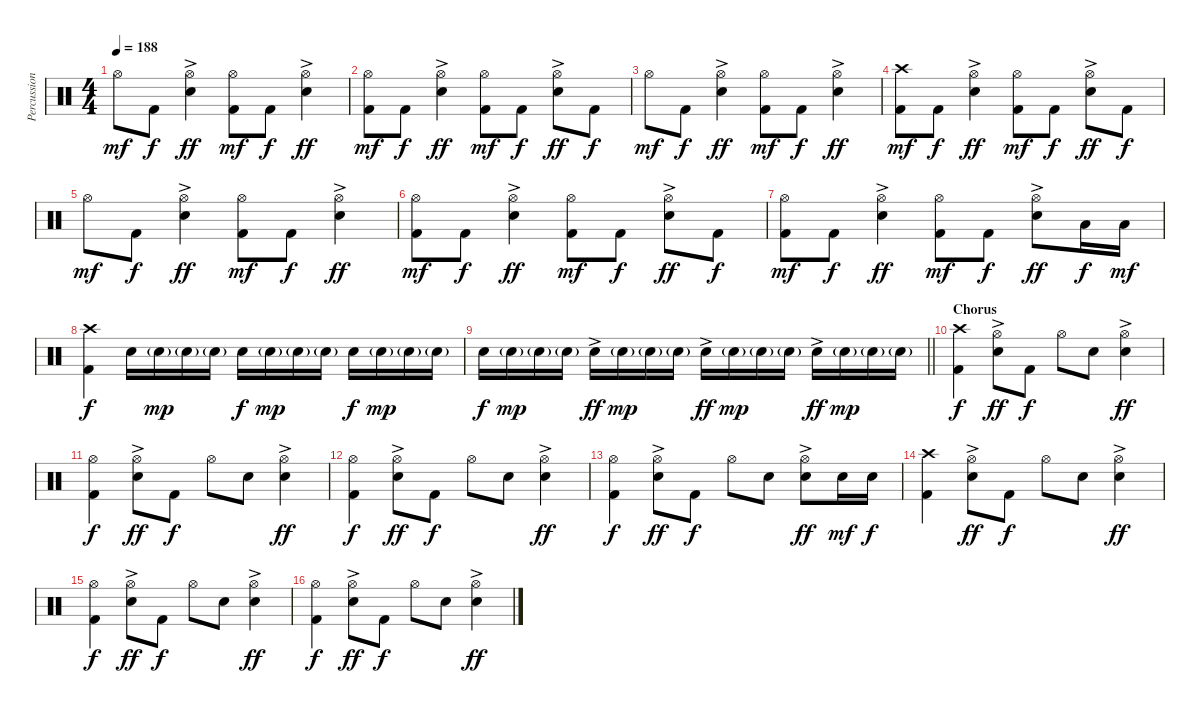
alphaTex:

\track ("Percussion" "Percussion") {instrument percussion}
\staff {score}
\articulation defaults
\ts (4 4)
\tempo 188
\clef neutral
\ks c "Hi-Hat (open)".8{dy mf} "Kick (hit) 2".8{dy f}
("Hi-Hat (open)" "Electric Snare (hit)"{ac}).4{dy ff} ("Hi-Hat (open)" "Kick (hit) 2").8{dy mf} "Kick (hit) 2".8{dy f} ("Hi-Hat (open)" "Electric Snare (hit)"{ac}).4{dy ff} |
("Hi-Hat (open)" "Kick (hit) 2").8{dy mf} "Kick (hit) 2".8{dy f} ("Hi-Hat (open)" "Electric Snare (hit)"{ac}).4{dy ff} ("Hi-Hat (open)" "Kick (hit) 2").8{dy mf} "Kick (hit) 2".8{dy f} ("Hi-Hat (open)" "Electric Snare (hit)"{ac}).8{dy ff} "Kick (hit) 2".8{dy f} |
"Hi-Hat (open)".8{dy mf} "Kick (hit) 2".8{dy f} ("Hi-Hat (open)" "Electric Snare (hit)"{ac}).4{dy ff} ("Hi-Hat (open)" "Kick (hit) 2").8{dy mf} "Kick (hit) 2".8{dy f} ("Hi-Hat (open)" "Electric Snare (hit)"{ac}).4{dy ff} |
("Crash high (hit)" "Kick (hit) 2").8{dy mf} "Kick (hit) 2".8{dy f} ("Hi-Hat (open)" "Electric Snare (hit)"{ac}).4{dy ff} ("Hi-Hat (open)" "Kick (hit) 2").8{dy mf} "Kick (hit) 2".8{dy f} ("Hi-Hat (open)" "Electric Snare (hit)"{ac}).8{dy ff} "Kick (hit) 2".8{dy f} |
"Hi-Hat (open)".8{dy mf} "Kick (hit) 2".8{dy f} ("Hi-Hat (open)" "Electric Snare (hit)"{ac}).4{dy ff} ("Hi-Hat (open)" "Kick (hit) 2").8{dy mf} "Kick (hit) 2".8{dy f} ("Hi-Hat (open)" "Electric Snare (hit)"{ac}).4{dy ff} |
("Hi-Hat (open)" "Kick (hit) 2").8{dy mf} "Kick (hit) 2".8{dy f} ("Hi-Hat (open)" "Electric Snare (hit)"{ac}).4{dy ff} ("Hi-Hat (open)" "Kick (hit) 2").8{dy mf} "Kick (hit) 2".8{dy f} ("Hi-Hat (open)" "Electric Snare (hit)"{ac}).8{dy ff} "Kick (hit) 2".8{dy f} |
("Hi-Hat (open)" "Kick (hit) 2").8{dy mf} "Kick (hit) 2".8{dy f} ("Hi-Hat (open)" "Electric Snare (hit)"{ac}).4{dy ff} ("Hi-Hat (open)" "Kick (hit) 2").8{dy mf} "Kick (hit) 2".8{dy f} ("Hi-Hat (open)" "Electric Snare (hit)"{ac}).8{dy ff} "Low Tom (hit)".16{dy f} "Low Tom (hit)".16{dy mf} |
("Crash high (hit)" "Kick (hit) 2").4{dy f} "Electric Snare (hit)".16 "Electric Snare (hit)"{g}.16{dy mp} "Electric Snare (hit)"{g}.16 "Electric Snare (hit)"{g}.16 "Electric Snare (hit)".16{dy f} "Electric Snare (hit)"{g}.16{dy mp} "Electric Snare (hit)"{g}.16 "Electric Snare (hit)"{g}.16 "Electric Snare (hit)".16{dy f} "Electric Snare (hit)"{g}.16{dy mp} "Electric Snare (hit)"{g}.16 "Electric Snare (hit)"{g}.16 |
\barLineRight lightlight "Electric Snare (hit)".16{dy f} "Electric Snare (hit)"{g}.16{dy mp} "Electric Snare (hit)"{g}.16 "Electric Snare (hit)"{g}.16 "Electric Snare (hit)"{ac}.16{dy ff} "Electric Snare (hit)"{g}.16{dy mp} "Electric Snare (hit)"{g}.16 "Electric Snare (hit)"{g}.16 "Electric Snare (hit)"{ac}.16{dy ff} "Electric Snare (hit)"{g}.16{dy mp} "Electric Snare (hit)"{g}.16 "Electric Snare (hit)"{g}.16 "Electric Snare (hit)"{ac}.16{dy ff} "Electric Snare (hit)"{g}.16{dy mp} "Electric Snare (hit)"{g}.16 "Electric Snare (hit)"{g}.16
|
\section ("" "Chorus")
("Crash high (hit)" "Kick (hit) 2").4{dy f} ("Hi-Hat (open)" "Electric Snare (hit)"{ac}).8{dy ff} "Kick (hit) 2".8{dy f} "Hi-Hat (open)".8 "Electric Snare (hit)".8 ("Hi-Hat (open)" "Electric Snare (hit)"{ac}).4{dy ff} |
("Hi-Hat (open)" "Kick (hit) 2").4{dy f} ("Hi-Hat (open)" "Electric Snare (hit)"{ac}).8{dy ff} "Kick (hit) 2".8{dy f} "Hi-Hat (open)".8 "Electric Snare (hit)".8 ("Hi-Hat (open)" "Electric Snare (hit)"{ac}).4{dy ff} |
("Hi-Hat (open)" "Kick (hit) 2").4{dy f} ("Hi-Hat (open)" "Electric Snare (hit)"{ac}).8{dy ff} "Kick (hit) 2".8{dy f} "Hi-Hat (open)".8 "Electric Snare (hit)".8 ("Hi-Hat (open)" "Electric Snare (hit)"{ac}).4{dy ff} |
("Hi-Hat (open)" "Kick (hit) 2").4{dy f} ("Hi-Hat (open)" "Electric Snare (hit)"{ac}).8{dy ff} "Kick (hit) 2".8{dy f} "Hi-Hat (open)".8 "Electric Snare (hit)".8 ("Hi-Hat (open)" "Electric Snare (hit)"{ac}).8{dy ff} "Electric Snare (hit)".16{dy mf} "Electric Snare (hit)".16{dy f} |
("Crash high (hit)" "Kick (hit) 2").4 ("Hi-Hat (open)" "Electric Snare (hit)"{ac}).8{dy ff} "Kick (hit) 2".8{dy f} "Hi-Hat (open)".8 "Electric Snare (hit)".8 ("Hi-Hat (open)" "Electric Snare (hit)"{ac}).4{dy ff} |
("Hi-Hat (open)" "Kick (hit) 2").4{dy f} ("Hi-Hat (open)" "Electric Snare (hit)"{ac}).8{dy ff} "Kick (hit) 2".8{dy f} "Hi-Hat (open)".8 "Electric Snare (hit)".8 ("Hi-Hat (open)" "Electric Snare (hit)"{ac}).4{dy ff} |
("Hi-Hat (open)" "Kick (hit) 2").4{dy f} ("Hi-Hat (open)" "Electric Snare (hit)"{ac}).8{dy ff} "Kick (hit) 2".8{dy f} "Hi-Hat (open)".8 "Electric Snare (hit)".8 ("Hi-Hat (open)" "Electric Snare (hit)"{ac}).4{dy ff}
